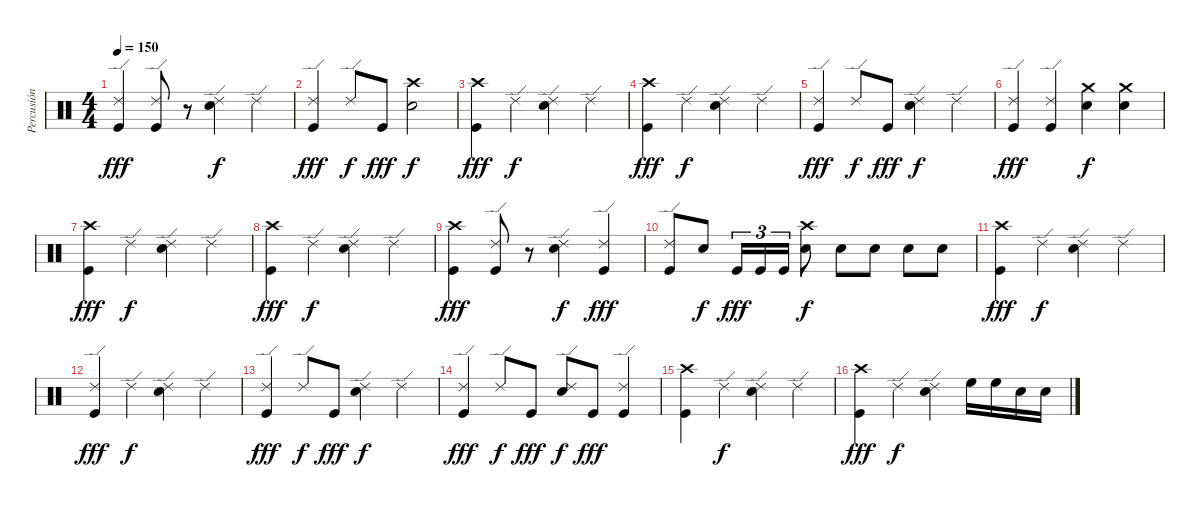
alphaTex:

\track ("Percusión" "Percusión") {instrument percussion}
\staff {score}
\articulation defaults
\ts (4 4)
\tempo 150
\clef neutral
\ks c
("Ride (edge) 2" "Kick (hit)").4{dy fff} ("Ride (edge) 2" "Kick (hit)").8 r.8 ("Ride (edge) 2" "Electric Snare (hit)").4{dy f} "Ride (edge) 2".4 |
("Ride (edge) 2" "Kick (hit)").4{dy fff} "Ride (edge) 2".8{dy f} "Kick (hit)".8{dy fff} ("Crash high (hit)" "Electric Snare (hit)").2{dy f} |
("Crash high (hit)" "Kick (hit)").4{dy fff} "Ride (edge) 2".4{dy f} ("Ride (edge) 2" "Electric Snare (hit)").4 "Ride (edge) 2".4 |
("Crash high (hit)" "Kick (hit)").4{dy fff} "Ride (edge) 2".4{dy f} ("Ride (edge) 2" "Electric Snare (hit)").4 "Ride (edge) 2".4 |
("Ride (edge) 2" "Kick (hit)").4{dy fff} "Ride (edge) 2".8{dy f} "Kick (hit)".8{dy fff} ("Ride (edge) 2" "Electric Snare (hit)").4{dy f} "Ride (edge) 2".4 |
("Ride (edge) 2" "Kick (hit)").4{dy fff} ("Ride (edge) 2" "Kick (hit)").4 ("Crash medium (hit)" "Electric Snare (hit)").4{dy f} ("Crash medium (hit)" "Electric Snare (hit)").4 |
("Crash high (hit)" "Kick (hit)").4{dy fff} "Ride (edge) 2".4{dy f} ("Ride (edge) 2" "Electric Snare (hit)").4 "Ride (edge) 2".4 |
("Crash high (hit)" "Kick (hit)").4{dy fff} "Ride (edge) 2".4{dy f} ("Ride (edge) 2" "Electric Snare (hit)").4 "Ride (edge) 2".4 |
("Crash high (hit)" "Kick (hit)").4{dy fff} ("Ride (edge) 2" "Kick (hit)").8 r.8 ("Ride (edge) 2" "Electric Snare (hit)").4{dy f} ("Ride (edge) 2" "Kick (hit)").4{dy fff} |
("Ride (edge) 2" "Kick (hit)").8 "Electric Snare (hit)".8{dy f} "Kick (hit)".16{tu (3 2) dy fff} "Kick (hit)".16{tu (3 2)} "Kick (hit)".16{tu (3 2)} ("Crash high (hit)" "Electric Snare (hit)").8{dy f} "Electric Snare (hit)".8 "Electric Snare (hit)".8 "Electric Snare (hit)".8 "Electric Snare (hit)".8 |
("Crash high (hit)" "Kick (hit)").4{dy fff} "Ride (edge) 2".4{dy f} ("Ride (edge) 2" "Electric Snare (hit)").4 "Ride (edge) 2".4 |
("Ride (edge) 2" "Kick (hit)").4{dy fff} "Ride (edge) 2".4{dy f} ("Ride (edge) 2" "Electric Snare (hit)").4 "Ride (edge) 2".4 |
("Ride (edge) 2" "Kick (hit)").4{dy fff} "Ride (edge) 2".8{dy f} "Kick (hit)".8{dy fff} ("Ride (edge) 2" "Electric Snare (hit)").4{dy f} "Ride (edge) 2".4 |
("Ride (edge) 2" "Kick (hit)").4{dy fff} "Ride (edge) 2".8{dy f} "Kick (hit)".8{dy fff} ("Ride (edge) 2" "Electric Snare (hit)").8{dy f} "Kick (hit)".8{dy fff} ("Ride (edge) 2" "Kick (hit)").4 |
("Crash high (hit)" "Kick (hit)").4 "Ride (edge) 2".4{dy f} ("Ride (edge) 2" "Electric Snare (hit)").4 "Ride (edge) 2".4 |
("Crash high (hit)" "Kick (hit)").4{dy fff} "Ride (edge) 2".4{dy f} ("Ride (edge) 2" "Electric Snare (hit)").4 "High Floor Tom (hit)".16 "High Floor Tom (hit)".16 "Electric Snare (hit)".16 "Electric Snare (hit)".16
